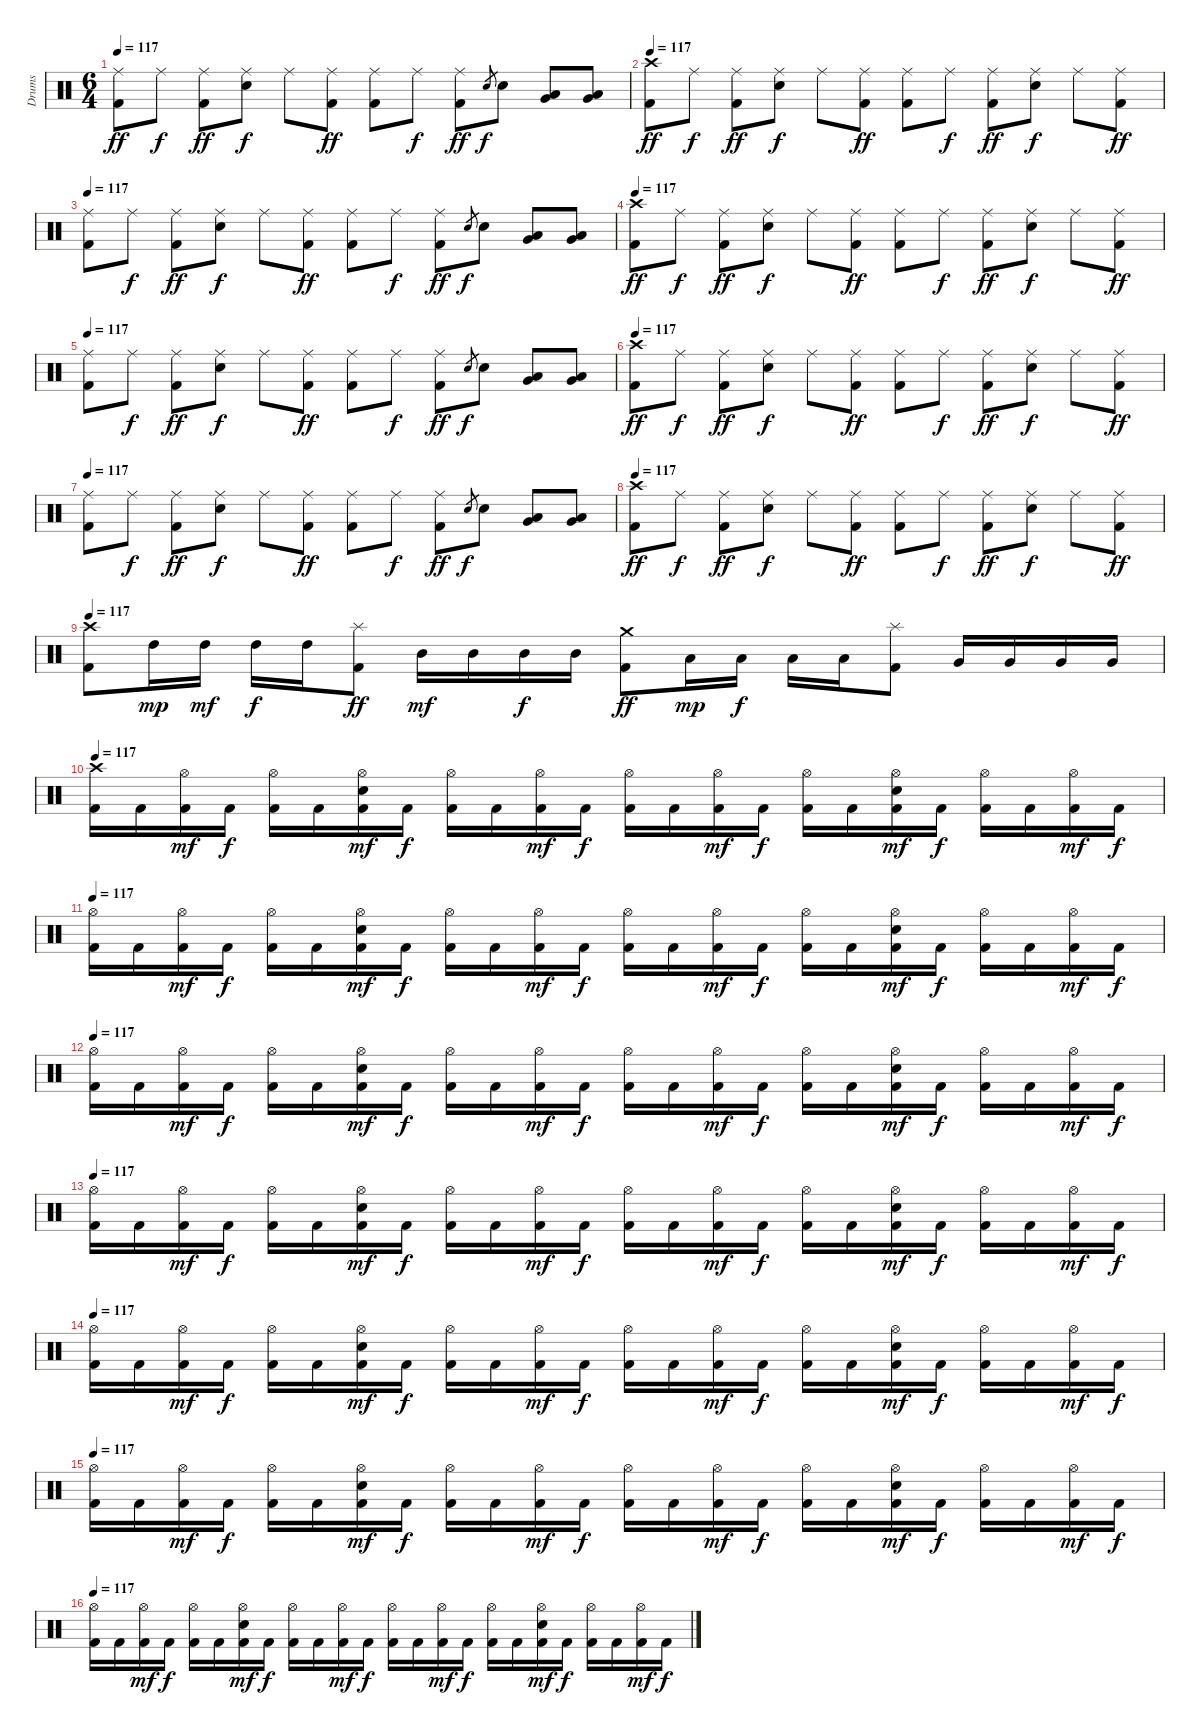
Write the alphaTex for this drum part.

\track ("Drums" "Drums") {instrument percussion}
\staff {score}
\articulation defaults
\ts (6 4)
\tempo 117
\clef neutral
\ks c
("Ride (middle)" "Kick (hit) 2").8{dy ff} "Ride (middle)".8{dy f} ("Ride (middle)" "Kick (hit) 2").8{dy ff} ("Ride (middle)" "Electric Snare (hit)").8{dy f} "Ride (middle)".8 ("Ride (middle)" "Kick (hit) 2").8{dy ff} ("Ride (middle)" "Kick (hit) 2").8 "Ride (middle)".8{dy f} ("Ride (middle)" "Kick (hit) 2").8{dy ff} "Electric Snare (hit)".8{gr dy f} "Electric Snare (hit)".8 ("Low Tom (hit)" "Very Low Tom (hit)").8 ("Very Low Tom (hit)" "Low Floor Tom (hit)").8 |
\tempo 117
("Crash high (hit)" "Kick (hit) 2").8{dy ff} "Ride (middle)".8{dy f} ("Ride (middle)" "Kick (hit) 2").8{dy ff} ("Ride (middle)" "Electric Snare (hit)").8{dy f} "Ride (middle)".8 ("Ride (middle)" "Kick (hit) 2").8{dy ff} ("Ride (middle)" "Kick (hit) 2").8 "Ride (middle)".8{dy f} ("Ride (middle)" "Kick (hit) 2").8{dy ff} ("Ride (middle)" "Electric Snare (hit)").8{dy f} "Ride (middle)".8 ("Ride (middle)" "Kick (hit) 2").8{dy ff} |
\tempo 117
("Ride (middle)" "Kick (hit) 2").8 "Ride (middle)".8{dy f} ("Ride (middle)" "Kick (hit) 2").8{dy ff} ("Ride (middle)" "Electric Snare (hit)").8{dy f} "Ride (middle)".8 ("Ride (middle)" "Kick (hit) 2").8{dy ff} ("Ride (middle)" "Kick (hit) 2").8 "Ride (middle)".8{dy f} ("Ride (middle)" "Kick (hit) 2").8{dy ff} "Electric Snare (hit)".8{gr dy f} "Electric Snare (hit)".8 ("Low Tom (hit)" "Very Low Tom (hit)").8 ("Very Low Tom (hit)" "Low Floor Tom (hit)").8 |
\tempo 117
("Crash high (hit)" "Kick (hit) 2").8{dy ff} "Ride (middle)".8{dy f} ("Ride (middle)" "Kick (hit) 2").8{dy ff} ("Ride (middle)" "Electric Snare (hit)").8{dy f} "Ride (middle)".8 ("Ride (middle)" "Kick (hit) 2").8{dy ff} ("Ride (middle)" "Kick (hit) 2").8 "Ride (middle)".8{dy f} ("Ride (middle)" "Kick (hit) 2").8{dy ff} ("Ride (middle)" "Electric Snare (hit)").8{dy f} "Ride (middle)".8 ("Ride (middle)" "Kick (hit) 2").8{dy ff} |
\tempo 117
("Ride (middle)" "Kick (hit) 2").8 "Ride (middle)".8{dy f} ("Ride (middle)" "Kick (hit) 2").8{dy ff} ("Ride (middle)" "Electric Snare (hit)").8{dy f} "Ride (middle)".8 ("Ride (middle)" "Kick (hit) 2").8{dy ff} ("Ride (middle)" "Kick (hit) 2").8 "Ride (middle)".8{dy f} ("Ride (middle)" "Kick (hit) 2").8{dy ff} "Electric Snare (hit)".8{gr dy f} "Electric Snare (hit)".8 ("Low Tom (hit)" "Very Low Tom (hit)").8 ("Very Low Tom (hit)" "Low Floor Tom (hit)").8 |
\tempo 117
("Crash high (hit)" "Kick (hit) 2").8{dy ff} "Ride (middle)".8{dy f} ("Ride (middle)" "Kick (hit) 2").8{dy ff} ("Ride (middle)" "Electric Snare (hit)").8{dy f} "Ride (middle)".8 ("Ride (middle)" "Kick (hit) 2").8{dy ff} ("Ride (middle)" "Kick (hit) 2").8 "Ride (middle)".8{dy f} ("Ride (middle)" "Kick (hit) 2").8{dy ff} ("Ride (middle)" "Electric Snare (hit)").8{dy f} "Ride (middle)".8 ("Ride (middle)" "Kick (hit) 2").8{dy ff} |
\tempo 117
("Ride (middle)" "Kick (hit) 2").8 "Ride (middle)".8{dy f} ("Ride (middle)" "Kick (hit) 2").8{dy ff} ("Ride (middle)" "Electric Snare (hit)").8{dy f} "Ride (middle)".8 ("Ride (middle)" "Kick (hit) 2").8{dy ff} ("Ride (middle)" "Kick (hit) 2").8 "Ride (middle)".8{dy f} ("Ride (middle)" "Kick (hit) 2").8{dy ff} "Electric Snare (hit)".8{gr dy f} "Electric Snare (hit)".8 ("Low Tom (hit)" "Very Low Tom (hit)").8 ("Very Low Tom (hit)" "Low Floor Tom (hit)").8 |
\tempo 117
("Crash high (hit)" "Kick (hit) 2").8{dy ff} "Ride (middle)".8{dy f} ("Ride (middle)" "Kick (hit) 2").8{dy ff} ("Ride (middle)" "Electric Snare (hit)").8{dy f} "Ride (middle)".8 ("Ride (middle)" "Kick (hit) 2").8{dy ff} ("Ride (middle)" "Kick (hit) 2").8 "Ride (middle)".8{dy f} ("Ride (middle)" "Kick (hit) 2").8{dy ff} ("Ride (middle)" "Electric Snare (hit)").8{dy f} "Ride (middle)".8 ("Ride (middle)" "Kick (hit) 2").8{dy ff} |
\tempo 117
("Crash high (hit)" "Kick (hit) 2").8 "High Tom (hit)".16{dy mp} "High Tom (hit)".16{dy mf} "High Tom (hit)".16{dy f} "High Tom (hit)".16 ("Splash (hit)" "Kick (hit) 2").8{dy ff} "Mid Tom (hit)".16{dy mf} "Mid Tom (hit)".16 "Mid Tom (hit)".16{dy f} "Mid Tom (hit)".16 ("Crash medium (hit)" "Kick (hit) 2").8{dy ff} "Low Tom (hit)".16{dy mp} "Low Tom (hit)".16{dy f} "Low Tom (hit)".16 "Low Tom (hit)".16 ("Splash (hit)" "Kick (hit) 2").8 "Very Low Tom (hit)".16 "Very Low Tom (hit)".16 "Very Low Tom (hit)".16 "Very Low Tom (hit)".16 |
\tempo 117
("Crash high (hit)" "Kick (hit) 2").16 "Kick (hit) 2".16 ("Hi-Hat (open)" "Kick (hit) 2").16{dy mf} "Kick (hit) 2".16{dy f} ("Hi-Hat (open)" "Kick (hit) 2").16 "Kick (hit) 2".16 ("Hi-Hat (open)" "Electric Snare (hit)" "Kick (hit) 2").16{dy mf} "Kick (hit) 2".16{dy f} ("Hi-Hat (open)" "Kick (hit) 2").16 "Kick (hit) 2".16 ("Hi-Hat (open)" "Kick (hit) 2").16{dy mf} "Kick (hit) 2".16{dy f} ("Hi-Hat (open)" "Kick (hit) 2").16 "Kick (hit) 2".16 ("Hi-Hat (open)" "Kick (hit) 2").16{dy mf} "Kick (hit) 2".16{dy f} ("Hi-Hat (open)" "Kick (hit) 2").16 "Kick (hit) 2".16 ("Hi-Hat (open)" "Electric Snare (hit)" "Kick (hit) 2").16{dy mf} "Kick (hit) 2".16{dy f} ("Hi-Hat (open)" "Kick (hit) 2").16 "Kick (hit) 2".16 ("Hi-Hat (open)" "Kick (hit) 2").16{dy mf} "Kick (hit) 2".16{dy f} |
\tempo 117
("Hi-Hat (open)" "Kick (hit) 2").16 "Kick (hit) 2".16 ("Hi-Hat (open)" "Kick (hit) 2").16{dy mf} "Kick (hit) 2".16{dy f} ("Hi-Hat (open)" "Kick (hit) 2").16 "Kick (hit) 2".16 ("Hi-Hat (open)" "Electric Snare (hit)" "Kick (hit) 2").16{dy mf} "Kick (hit) 2".16{dy f} ("Hi-Hat (open)" "Kick (hit) 2").16 "Kick (hit) 2".16 ("Hi-Hat (open)" "Kick (hit) 2").16{dy mf} "Kick (hit) 2".16{dy f} ("Hi-Hat (open)" "Kick (hit) 2").16 "Kick (hit) 2".16 ("Hi-Hat (open)" "Kick (hit) 2").16{dy mf} "Kick (hit) 2".16{dy f} ("Hi-Hat (open)" "Kick (hit) 2").16 "Kick (hit) 2".16 ("Hi-Hat (open)" "Electric Snare (hit)" "Kick (hit) 2").16{dy mf} "Kick (hit) 2".16{dy f} ("Hi-Hat (open)" "Kick (hit) 2").16 "Kick (hit) 2".16 ("Hi-Hat (open)" "Kick (hit) 2").16{dy mf} "Kick (hit) 2".16{dy f} |
\tempo 117
("Hi-Hat (open)" "Kick (hit) 2").16 "Kick (hit) 2".16 ("Hi-Hat (open)" "Kick (hit) 2").16{dy mf} "Kick (hit) 2".16{dy f} ("Hi-Hat (open)" "Kick (hit) 2").16 "Kick (hit) 2".16 ("Hi-Hat (open)" "Electric Snare (hit)" "Kick (hit) 2").16{dy mf} "Kick (hit) 2".16{dy f} ("Hi-Hat (open)" "Kick (hit) 2").16 "Kick (hit) 2".16 ("Hi-Hat (open)" "Kick (hit) 2").16{dy mf} "Kick (hit) 2".16{dy f} ("Hi-Hat (open)" "Kick (hit) 2").16 "Kick (hit) 2".16 ("Hi-Hat (open)" "Kick (hit) 2").16{dy mf} "Kick (hit) 2".16{dy f} ("Hi-Hat (open)" "Kick (hit) 2").16 "Kick (hit) 2".16 ("Hi-Hat (open)" "Electric Snare (hit)" "Kick (hit) 2").16{dy mf} "Kick (hit) 2".16{dy f} ("Hi-Hat (open)" "Kick (hit) 2").16 "Kick (hit) 2".16 ("Hi-Hat (open)" "Kick (hit) 2").16{dy mf} "Kick (hit) 2".16{dy f} |
\tempo 117
("Hi-Hat (open)" "Kick (hit) 2").16 "Kick (hit) 2".16 ("Hi-Hat (open)" "Kick (hit) 2").16{dy mf} "Kick (hit) 2".16{dy f} ("Hi-Hat (open)" "Kick (hit) 2").16 "Kick (hit) 2".16 ("Hi-Hat (open)" "Electric Snare (hit)" "Kick (hit) 2").16{dy mf} "Kick (hit) 2".16{dy f} ("Hi-Hat (open)" "Kick (hit) 2").16 "Kick (hit) 2".16 ("Hi-Hat (open)" "Kick (hit) 2").16{dy mf} "Kick (hit) 2".16{dy f} ("Hi-Hat (open)" "Kick (hit) 2").16 "Kick (hit) 2".16 ("Hi-Hat (open)" "Kick (hit) 2").16{dy mf} "Kick (hit) 2".16{dy f} ("Hi-Hat (open)" "Kick (hit) 2").16 "Kick (hit) 2".16 ("Hi-Hat (open)" "Electric Snare (hit)" "Kick (hit) 2").16{dy mf} "Kick (hit) 2".16{dy f} ("Hi-Hat (open)" "Kick (hit) 2").16 "Kick (hit) 2".16 ("Hi-Hat (open)" "Kick (hit) 2").16{dy mf} "Kick (hit) 2".16{dy f} |
\tempo 117
("Hi-Hat (open)" "Kick (hit) 2").16 "Kick (hit) 2".16 ("Hi-Hat (open)" "Kick (hit) 2").16{dy mf} "Kick (hit) 2".16{dy f} ("Hi-Hat (open)" "Kick (hit) 2").16 "Kick (hit) 2".16 ("Hi-Hat (open)" "Electric Snare (hit)" "Kick (hit) 2").16{dy mf} "Kick (hit) 2".16{dy f} ("Hi-Hat (open)" "Kick (hit) 2").16 "Kick (hit) 2".16 ("Hi-Hat (open)" "Kick (hit) 2").16{dy mf} "Kick (hit) 2".16{dy f} ("Hi-Hat (open)" "Kick (hit) 2").16 "Kick (hit) 2".16 ("Hi-Hat (open)" "Kick (hit) 2").16{dy mf} "Kick (hit) 2".16{dy f} ("Hi-Hat (open)" "Kick (hit) 2").16 "Kick (hit) 2".16 ("Hi-Hat (open)" "Electric Snare (hit)" "Kick (hit) 2").16{dy mf} "Kick (hit) 2".16{dy f} ("Hi-Hat (open)" "Kick (hit) 2").16 "Kick (hit) 2".16 ("Hi-Hat (open)" "Kick (hit) 2").16{dy mf} "Kick (hit) 2".16{dy f} |
\tempo 117
("Hi-Hat (open)" "Kick (hit) 2").16 "Kick (hit) 2".16 ("Hi-Hat (open)" "Kick (hit) 2").16{dy mf} "Kick (hit) 2".16{dy f} ("Hi-Hat (open)" "Kick (hit) 2").16 "Kick (hit) 2".16 ("Hi-Hat (open)" "Electric Snare (hit)" "Kick (hit) 2").16{dy mf} "Kick (hit) 2".16{dy f} ("Hi-Hat (open)" "Kick (hit) 2").16 "Kick (hit) 2".16 ("Hi-Hat (open)" "Kick (hit) 2").16{dy mf} "Kick (hit) 2".16{dy f} ("Hi-Hat (open)" "Kick (hit) 2").16 "Kick (hit) 2".16 ("Hi-Hat (open)" "Kick (hit) 2").16{dy mf} "Kick (hit) 2".16{dy f} ("Hi-Hat (open)" "Kick (hit) 2").16 "Kick (hit) 2".16 ("Hi-Hat (open)" "Electric Snare (hit)" "Kick (hit) 2").16{dy mf} "Kick (hit) 2".16{dy f} ("Hi-Hat (open)" "Kick (hit) 2").16 "Kick (hit) 2".16 ("Hi-Hat (open)" "Kick (hit) 2").16{dy mf} "Kick (hit) 2".16{dy f} |
\tempo 117
("Hi-Hat (open)" "Kick (hit) 2").16 "Kick (hit) 2".16 ("Hi-Hat (open)" "Kick (hit) 2").16{dy mf} "Kick (hit) 2".16{dy f} ("Hi-Hat (open)" "Kick (hit) 2").16 "Kick (hit) 2".16 ("Hi-Hat (open)" "Electric Snare (hit)" "Kick (hit) 2").16{dy mf} "Kick (hit) 2".16{dy f} ("Hi-Hat (open)" "Kick (hit) 2").16 "Kick (hit) 2".16 ("Hi-Hat (open)" "Kick (hit) 2").16{dy mf} "Kick (hit) 2".16{dy f} ("Hi-Hat (open)" "Kick (hit) 2").16 "Kick (hit) 2".16 ("Hi-Hat (open)" "Kick (hit) 2").16{dy mf} "Kick (hit) 2".16{dy f} ("Hi-Hat (open)" "Kick (hit) 2").16 "Kick (hit) 2".16 ("Hi-Hat (open)" "Electric Snare (hit)" "Kick (hit) 2").16{dy mf} "Kick (hit) 2".16{dy f} ("Hi-Hat (open)" "Kick (hit) 2").16 "Kick (hit) 2".16 ("Hi-Hat (open)" "Kick (hit) 2").16{dy mf} "Kick (hit) 2".16{dy f}
